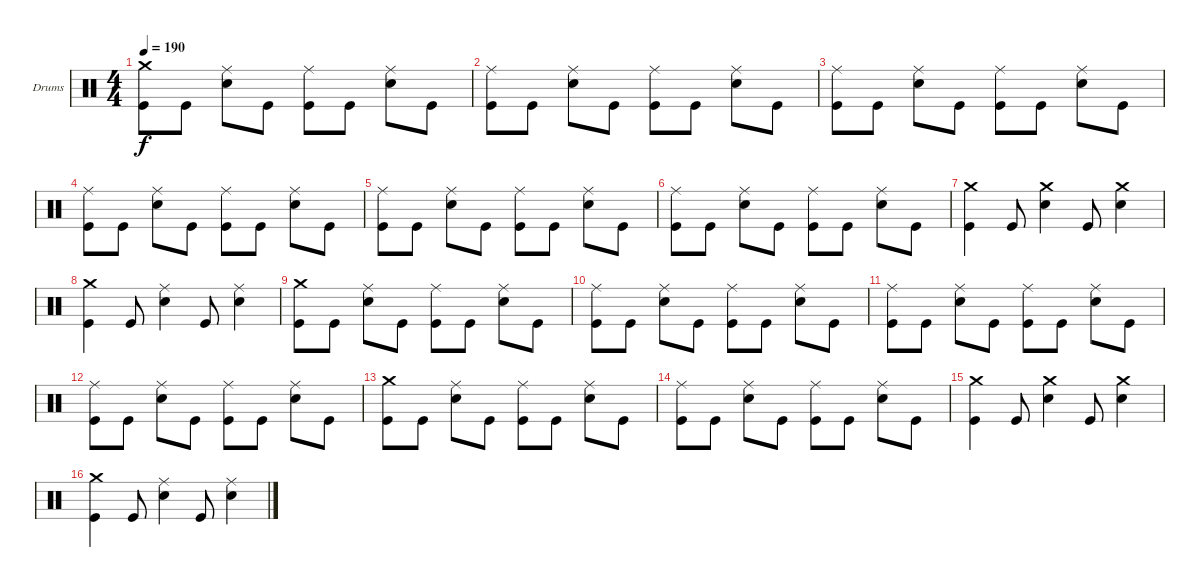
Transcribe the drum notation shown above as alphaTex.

\bracketExtendMode groupsimilarinstruments
\firstSystemTrackNameOrientation horizontal
\otherSystemsTrackNameOrientation horizontal
\track ("Максим Удалов" "Drums") {instrument percussion}
\staff {score}
\articulation defaults
\ts (4 4)
\tempo 190
\clef neutral
\ks c
("Kick (hit)" "Crash medium (hit)").8{dy f} "Kick (hit)".8 ("Snare (hit) 2" "Ride (middle)").8 "Kick (hit)".8 ("Kick (hit)" "Ride (middle)").8 "Kick (hit)".8 ("Snare (hit) 2" "Ride (middle)").8 "Kick (hit)".8 |
("Kick (hit)" "Ride (middle)").8 "Kick (hit)".8 ("Snare (hit) 2" "Ride (middle)").8 "Kick (hit)".8 ("Kick (hit)" "Ride (middle)").8 "Kick (hit)".8 ("Snare (hit) 2" "Ride (middle)").8 "Kick (hit)".8 |
("Kick (hit)" "Ride (middle)").8 "Kick (hit)".8 ("Snare (hit) 2" "Ride (middle)").8 "Kick (hit)".8 ("Kick (hit)" "Ride (middle)").8 "Kick (hit)".8 ("Snare (hit) 2" "Ride (middle)").8 "Kick (hit)".8 |
("Kick (hit)" "Ride (middle)").8 "Kick (hit)".8 ("Snare (hit) 2" "Ride (middle)").8 "Kick (hit)".8 ("Kick (hit)" "Ride (middle)").8 "Kick (hit)".8 ("Snare (hit) 2" "Ride (middle)").8 "Kick (hit)".8 |
("Kick (hit)" "Ride (middle)").8 "Kick (hit)".8 ("Snare (hit) 2" "Ride (middle)").8 "Kick (hit)".8 ("Kick (hit)" "Ride (middle)").8 "Kick (hit)".8 ("Snare (hit) 2" "Ride (middle)").8 "Kick (hit)".8 |
("Kick (hit)" "Ride (middle)").8 "Kick (hit)".8 ("Snare (hit) 2" "Ride (middle)").8 "Kick (hit)".8 ("Kick (hit)" "Ride (middle)").8 "Kick (hit)".8 ("Snare (hit) 2" "Ride (middle)").8 "Kick (hit)".8 |
("Kick (hit)" "Crash medium (hit)").4 "Kick (hit)".8 ("Snare (hit) 2" "Crash medium (hit)").4 "Kick (hit)".8 ("Snare (hit) 2" "Crash medium (hit)").4 |
("Kick (hit)" "Crash medium (hit)").4 "Kick (hit)".8 ("Snare (hit) 2" "Ride (middle)").4 "Kick (hit)".8 ("Snare (hit) 2" "Ride (middle)").4 |
("Kick (hit)" "Crash medium (hit)").8 "Kick (hit)".8 ("Snare (hit) 2" "Ride (middle)").8 "Kick (hit)".8 ("Kick (hit)" "Ride (middle)").8 "Kick (hit)".8 ("Snare (hit) 2" "Ride (middle)").8 "Kick (hit)".8 |
("Kick (hit)" "Ride (middle)").8 "Kick (hit)".8 ("Snare (hit) 2" "Ride (middle)").8 "Kick (hit)".8 ("Kick (hit)" "Ride (middle)").8 "Kick (hit)".8 ("Snare (hit) 2" "Ride (middle)").8 "Kick (hit)".8 |
("Kick (hit)" "Ride (middle)").8 "Kick (hit)".8 ("Snare (hit) 2" "Ride (middle)").8 "Kick (hit)".8 ("Kick (hit)" "Ride (middle)").8 "Kick (hit)".8 ("Snare (hit) 2" "Ride (middle)").8 "Kick (hit)".8 |
("Kick (hit)" "Ride (middle)").8 "Kick (hit)".8 ("Snare (hit) 2" "Ride (middle)").8 "Kick (hit)".8 ("Kick (hit)" "Ride (middle)").8 "Kick (hit)".8 ("Snare (hit) 2" "Ride (middle)").8 "Kick (hit)".8 |
("Kick (hit)" "Crash medium (hit)").8 "Kick (hit)".8 ("Snare (hit) 2" "Ride (middle)").8 "Kick (hit)".8 ("Kick (hit)" "Ride (middle)").8 "Kick (hit)".8 ("Snare (hit) 2" "Ride (middle)").8 "Kick (hit)".8 |
("Kick (hit)" "Ride (middle)").8 "Kick (hit)".8 ("Snare (hit) 2" "Ride (middle)").8 "Kick (hit)".8 ("Kick (hit)" "Ride (middle)").8 "Kick (hit)".8 ("Snare (hit) 2" "Ride (middle)").8 "Kick (hit)".8 |
("Kick (hit)" "Crash medium (hit)").4 "Kick (hit)".8 ("Snare (hit) 2" "Crash medium (hit)").4 "Kick (hit)".8 ("Snare (hit) 2" "Crash medium (hit)").4 |
("Kick (hit)" "Crash medium (hit)").4 "Kick (hit)".8 ("Snare (hit) 2" "Ride (middle)").4 "Kick (hit)".8 ("Snare (hit) 2" "Ride (middle)").4
